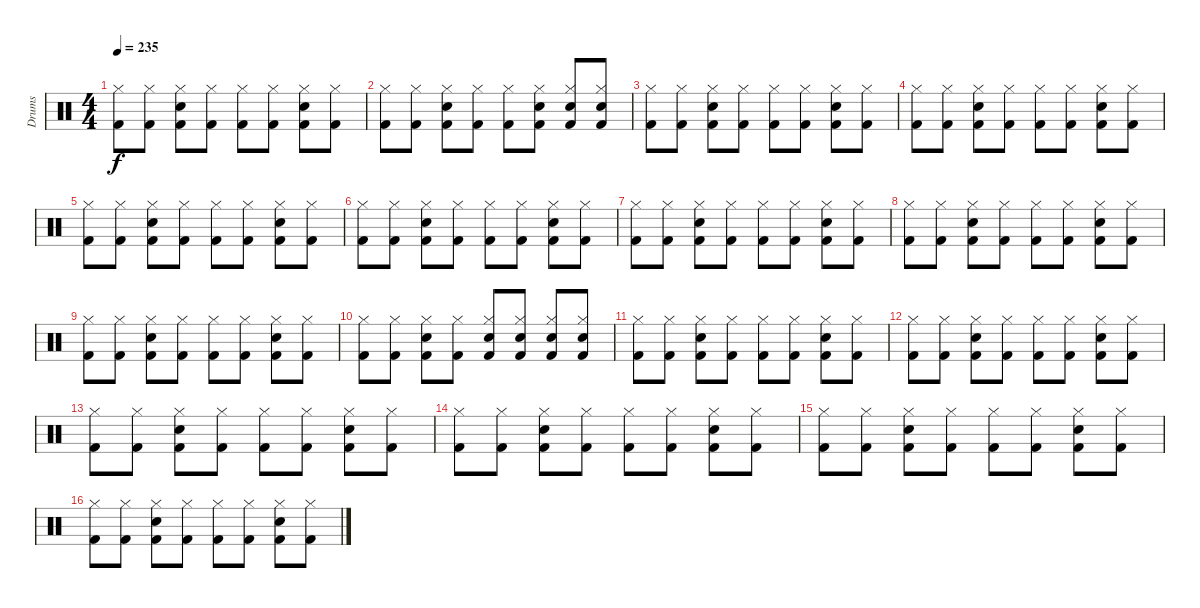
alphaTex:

\track ("Drums" "Drums") {instrument percussion}
\staff {score}
\articulation defaults
\ts (4 4)
\tempo 235
\clef neutral
\ks c
("Kick (hit) 2" "Hi-Hat (closed)").8{dy f} ("Kick (hit) 2" "Hi-Hat (closed)").8 ("Kick (hit) 2" "Snare (hit) 2" "Hi-Hat (closed)").8 ("Kick (hit) 2" "Hi-Hat (closed)").8 ("Kick (hit) 2" "Hi-Hat (closed)").8 ("Kick (hit) 2" "Hi-Hat (closed)").8 ("Kick (hit) 2" "Hi-Hat (closed)" "Snare (hit) 2").8 ("Kick (hit) 2" "Hi-Hat (closed)").8 |
("Kick (hit) 2" "Hi-Hat (closed)").8 ("Kick (hit) 2" "Hi-Hat (closed)").8 ("Kick (hit) 2" "Snare (hit) 2" "Hi-Hat (closed)").8 ("Kick (hit) 2" "Hi-Hat (closed)").8 ("Kick (hit) 2" "Hi-Hat (closed)").8 ("Kick (hit) 2" "Hi-Hat (closed)" "Snare (hit) 2").8 ("Kick (hit) 2" "Hi-Hat (closed)" "Snare (hit) 2").8 ("Kick (hit) 2" "Hi-Hat (closed)" "Snare (hit) 2").8 |
("Kick (hit) 2" "Hi-Hat (closed)").8 ("Kick (hit) 2" "Hi-Hat (closed)").8 ("Kick (hit) 2" "Snare (hit) 2" "Hi-Hat (closed)").8 ("Kick (hit) 2" "Hi-Hat (closed)").8 ("Kick (hit) 2" "Hi-Hat (closed)").8 ("Kick (hit) 2" "Hi-Hat (closed)").8 ("Kick (hit) 2" "Hi-Hat (closed)" "Snare (hit) 2").8 ("Kick (hit) 2" "Hi-Hat (closed)").8 |
("Kick (hit) 2" "Hi-Hat (closed)").8 ("Kick (hit) 2" "Hi-Hat (closed)").8 ("Kick (hit) 2" "Snare (hit) 2" "Hi-Hat (closed)").8 ("Kick (hit) 2" "Hi-Hat (closed)").8 ("Kick (hit) 2" "Hi-Hat (closed)").8 ("Kick (hit) 2" "Hi-Hat (closed)").8 ("Kick (hit) 2" "Hi-Hat (closed)" "Snare (hit) 2").8 ("Kick (hit) 2" "Hi-Hat (closed)").8 |
("Kick (hit) 2" "Hi-Hat (closed)").8 ("Kick (hit) 2" "Hi-Hat (closed)").8 ("Kick (hit) 2" "Snare (hit) 2" "Hi-Hat (closed)").8 ("Kick (hit) 2" "Hi-Hat (closed)").8 ("Kick (hit) 2" "Hi-Hat (closed)").8 ("Kick (hit) 2" "Hi-Hat (closed)").8 ("Kick (hit) 2" "Hi-Hat (closed)" "Snare (hit) 2").8 ("Kick (hit) 2" "Hi-Hat (closed)").8 |
("Kick (hit) 2" "Hi-Hat (closed)").8 ("Kick (hit) 2" "Hi-Hat (closed)").8 ("Kick (hit) 2" "Snare (hit) 2" "Hi-Hat (closed)").8 ("Kick (hit) 2" "Hi-Hat (closed)").8 ("Kick (hit) 2" "Hi-Hat (closed)").8 ("Kick (hit) 2" "Hi-Hat (closed)").8 ("Kick (hit) 2" "Hi-Hat (closed)" "Snare (hit) 2").8 ("Kick (hit) 2" "Hi-Hat (closed)").8 |
("Kick (hit) 2" "Hi-Hat (closed)").8 ("Kick (hit) 2" "Hi-Hat (closed)").8 ("Kick (hit) 2" "Snare (hit) 2" "Hi-Hat (closed)").8 ("Kick (hit) 2" "Hi-Hat (closed)").8 ("Kick (hit) 2" "Hi-Hat (closed)").8 ("Kick (hit) 2" "Hi-Hat (closed)").8 ("Kick (hit) 2" "Hi-Hat (closed)" "Snare (hit) 2").8 ("Kick (hit) 2" "Hi-Hat (closed)").8 |
("Kick (hit) 2" "Hi-Hat (closed)").8 ("Kick (hit) 2" "Hi-Hat (closed)").8 ("Kick (hit) 2" "Snare (hit) 2" "Hi-Hat (closed)").8 ("Kick (hit) 2" "Hi-Hat (closed)").8 ("Kick (hit) 2" "Hi-Hat (closed)").8 ("Kick (hit) 2" "Hi-Hat (closed)").8 ("Kick (hit) 2" "Hi-Hat (closed)" "Snare (hit) 2").8 ("Kick (hit) 2" "Hi-Hat (closed)").8 |
("Kick (hit) 2" "Hi-Hat (closed)").8 ("Kick (hit) 2" "Hi-Hat (closed)").8 ("Kick (hit) 2" "Snare (hit) 2" "Hi-Hat (closed)").8 ("Kick (hit) 2" "Hi-Hat (closed)").8 ("Kick (hit) 2" "Hi-Hat (closed)").8 ("Kick (hit) 2" "Hi-Hat (closed)").8 ("Kick (hit) 2" "Hi-Hat (closed)" "Snare (hit) 2").8 ("Kick (hit) 2" "Hi-Hat (closed)").8 |
("Kick (hit) 2" "Hi-Hat (closed)").8 ("Kick (hit) 2" "Hi-Hat (closed)").8 ("Kick (hit) 2" "Snare (hit) 2" "Hi-Hat (closed)").8 ("Kick (hit) 2" "Hi-Hat (closed)").8 ("Kick (hit) 2" "Hi-Hat (closed)" "Snare (hit) 2").8 ("Kick (hit) 2" "Hi-Hat (closed)" "Snare (hit) 2").8 ("Kick (hit) 2" "Hi-Hat (closed)" "Snare (hit) 2").8 ("Kick (hit) 2" "Hi-Hat (closed)" "Snare (hit) 2").8 |
("Kick (hit) 2" "Hi-Hat (closed)").8 ("Kick (hit) 2" "Hi-Hat (closed)").8 ("Kick (hit) 2" "Snare (hit) 2" "Hi-Hat (closed)").8 ("Kick (hit) 2" "Hi-Hat (closed)").8 ("Kick (hit) 2" "Hi-Hat (closed)").8 ("Kick (hit) 2" "Hi-Hat (closed)").8 ("Kick (hit) 2" "Hi-Hat (closed)" "Snare (hit) 2").8 ("Kick (hit) 2" "Hi-Hat (closed)").8 |
("Kick (hit) 2" "Hi-Hat (closed)").8 ("Kick (hit) 2" "Hi-Hat (closed)").8 ("Kick (hit) 2" "Snare (hit) 2" "Hi-Hat (closed)").8 ("Kick (hit) 2" "Hi-Hat (closed)").8 ("Kick (hit) 2" "Hi-Hat (closed)").8 ("Kick (hit) 2" "Hi-Hat (closed)").8 ("Kick (hit) 2" "Hi-Hat (closed)" "Snare (hit) 2").8 ("Kick (hit) 2" "Hi-Hat (closed)").8 |
("Kick (hit) 2" "Hi-Hat (closed)").8 ("Kick (hit) 2" "Hi-Hat (closed)").8 ("Kick (hit) 2" "Snare (hit) 2" "Hi-Hat (closed)").8 ("Kick (hit) 2" "Hi-Hat (closed)").8 ("Kick (hit) 2" "Hi-Hat (closed)").8 ("Kick (hit) 2" "Hi-Hat (closed)").8 ("Kick (hit) 2" "Hi-Hat (closed)" "Snare (hit) 2").8 ("Kick (hit) 2" "Hi-Hat (closed)").8 |
("Kick (hit) 2" "Hi-Hat (closed)").8 ("Kick (hit) 2" "Hi-Hat (closed)").8 ("Kick (hit) 2" "Snare (hit) 2" "Hi-Hat (closed)").8 ("Kick (hit) 2" "Hi-Hat (closed)").8 ("Kick (hit) 2" "Hi-Hat (closed)").8 ("Kick (hit) 2" "Hi-Hat (closed)").8 ("Kick (hit) 2" "Hi-Hat (closed)" "Snare (hit) 2").8 ("Kick (hit) 2" "Hi-Hat (closed)").8 |
("Kick (hit) 2" "Hi-Hat (closed)").8 ("Kick (hit) 2" "Hi-Hat (closed)").8 ("Kick (hit) 2" "Snare (hit) 2" "Hi-Hat (closed)").8 ("Kick (hit) 2" "Hi-Hat (closed)").8 ("Kick (hit) 2" "Hi-Hat (closed)").8 ("Kick (hit) 2" "Hi-Hat (closed)").8 ("Kick (hit) 2" "Hi-Hat (closed)" "Snare (hit) 2").8 ("Kick (hit) 2" "Hi-Hat (closed)").8 |
("Kick (hit) 2" "Hi-Hat (closed)").8 ("Kick (hit) 2" "Hi-Hat (closed)").8 ("Kick (hit) 2" "Snare (hit) 2" "Hi-Hat (closed)").8 ("Kick (hit) 2" "Hi-Hat (closed)").8 ("Kick (hit) 2" "Hi-Hat (closed)").8 ("Kick (hit) 2" "Hi-Hat (closed)").8 ("Kick (hit) 2" "Hi-Hat (closed)" "Snare (hit) 2").8 ("Kick (hit) 2" "Hi-Hat (closed)").8
